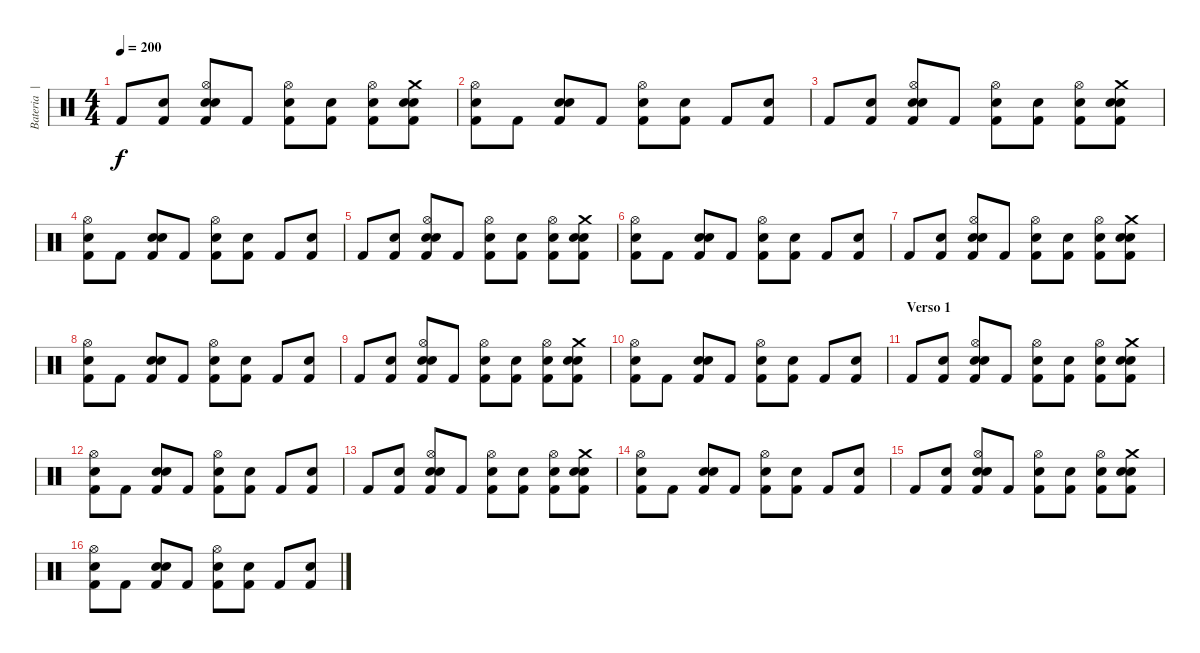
\track ("Bateria  | Nô" "Bateria  |") {instrument percussion}
\staff {score}
\articulation defaults
\ts (4 4)
\tempo 200
\clef neutral
\ks c "Kick (hit) 2".8{dy f}
("Electric Snare (hit)" "Kick (hit) 2").8 ("Hi-Hat (open)" "Electric Snare (hit)" "Snare (hit) 2" "Kick (hit) 2").8 "Kick (hit) 2".8 ("Hi-Hat (open)" "Electric Snare (hit)" "Kick (hit) 2").8 ("Electric Snare (hit)" "Kick (hit) 2").8 ("Hi-Hat (open)" "Electric Snare (hit)" "Kick (hit) 2").8 ("Crash medium (hit)" "Snare (hit) 2" "Electric Snare (hit)" "Kick (hit) 2").8 |
("Hi-Hat (open)" "Electric Snare (hit)" "Kick (hit) 2").8 "Kick (hit) 2".8 ("Snare (hit) 2" "Electric Snare (hit)" "Kick (hit) 2").8 "Kick (hit) 2".8 ("Hi-Hat (open)" "Electric Snare (hit)" "Kick (hit) 2").8 ("Electric Snare (hit)" "Kick (hit) 2").8 "Kick (hit) 2".8 ("Snare (hit) 2" "Kick (hit) 2").8 |
"Kick (hit) 2".8 ("Electric Snare (hit)" "Kick (hit) 2").8 ("Hi-Hat (open)" "Electric Snare (hit)" "Snare (hit) 2" "Kick (hit) 2").8 "Kick (hit) 2".8 ("Hi-Hat (open)" "Electric Snare (hit)" "Kick (hit) 2").8 ("Electric Snare (hit)" "Kick (hit) 2").8 ("Hi-Hat (open)" "Electric Snare (hit)" "Kick (hit) 2").8 ("Crash medium (hit)" "Snare (hit) 2" "Electric Snare (hit)" "Kick (hit) 2").8 |
("Hi-Hat (open)" "Electric Snare (hit)" "Kick (hit) 2").8 "Kick (hit) 2".8 ("Snare (hit) 2" "Electric Snare (hit)" "Kick (hit) 2").8 "Kick (hit) 2".8 ("Hi-Hat (open)" "Electric Snare (hit)" "Kick (hit) 2").8 ("Electric Snare (hit)" "Kick (hit) 2").8 "Kick (hit) 2".8 ("Snare (hit) 2" "Kick (hit) 2").8 |
"Kick (hit) 2".8 ("Electric Snare (hit)" "Kick (hit) 2").8 ("Hi-Hat (open)" "Electric Snare (hit)" "Snare (hit) 2" "Kick (hit) 2").8 "Kick (hit) 2".8 ("Hi-Hat (open)" "Electric Snare (hit)" "Kick (hit) 2").8 ("Electric Snare (hit)" "Kick (hit) 2").8 ("Hi-Hat (open)" "Electric Snare (hit)" "Kick (hit) 2").8 ("Crash medium (hit)" "Snare (hit) 2" "Electric Snare (hit)" "Kick (hit) 2").8 |
("Hi-Hat (open)" "Electric Snare (hit)" "Kick (hit) 2").8 "Kick (hit) 2".8 ("Snare (hit) 2" "Electric Snare (hit)" "Kick (hit) 2").8 "Kick (hit) 2".8 ("Hi-Hat (open)" "Electric Snare (hit)" "Kick (hit) 2").8 ("Electric Snare (hit)" "Kick (hit) 2").8 "Kick (hit) 2".8 ("Snare (hit) 2" "Kick (hit) 2").8 |
"Kick (hit) 2".8 ("Electric Snare (hit)" "Kick (hit) 2").8 ("Hi-Hat (open)" "Electric Snare (hit)" "Snare (hit) 2" "Kick (hit) 2").8 "Kick (hit) 2".8 ("Hi-Hat (open)" "Electric Snare (hit)" "Kick (hit) 2").8 ("Electric Snare (hit)" "Kick (hit) 2").8 ("Hi-Hat (open)" "Electric Snare (hit)" "Kick (hit) 2").8 ("Crash medium (hit)" "Snare (hit) 2" "Electric Snare (hit)" "Kick (hit) 2").8 |
("Hi-Hat (open)" "Electric Snare (hit)" "Kick (hit) 2").8 "Kick (hit) 2".8 ("Snare (hit) 2" "Electric Snare (hit)" "Kick (hit) 2").8 "Kick (hit) 2".8 ("Hi-Hat (open)" "Electric Snare (hit)" "Kick (hit) 2").8 ("Electric Snare (hit)" "Kick (hit) 2").8 "Kick (hit) 2".8 ("Snare (hit) 2" "Kick (hit) 2").8 |
"Kick (hit) 2".8 ("Electric Snare (hit)" "Kick (hit) 2").8 ("Hi-Hat (open)" "Electric Snare (hit)" "Snare (hit) 2" "Kick (hit) 2").8 "Kick (hit) 2".8 ("Hi-Hat (open)" "Electric Snare (hit)" "Kick (hit) 2").8 ("Electric Snare (hit)" "Kick (hit) 2").8 ("Hi-Hat (open)" "Electric Snare (hit)" "Kick (hit) 2").8 ("Crash medium (hit)" "Snare (hit) 2" "Electric Snare (hit)" "Kick (hit) 2").8 |
("Hi-Hat (open)" "Electric Snare (hit)" "Kick (hit) 2").8 "Kick (hit) 2".8 ("Snare (hit) 2" "Electric Snare (hit)" "Kick (hit) 2").8 "Kick (hit) 2".8 ("Hi-Hat (open)" "Electric Snare (hit)" "Kick (hit) 2").8 ("Electric Snare (hit)" "Kick (hit) 2").8 "Kick (hit) 2".8 ("Snare (hit) 2" "Kick (hit) 2").8 |
\section ("" "Verso 1")
"Kick (hit) 2".8 ("Electric Snare (hit)" "Kick (hit) 2").8 ("Hi-Hat (open)" "Electric Snare (hit)" "Snare (hit) 2" "Kick (hit) 2").8 "Kick (hit) 2".8 ("Hi-Hat (open)" "Electric Snare (hit)" "Kick (hit) 2").8 ("Electric Snare (hit)" "Kick (hit) 2").8 ("Hi-Hat (open)" "Electric Snare (hit)" "Kick (hit) 2").8 ("Crash medium (hit)" "Snare (hit) 2" "Electric Snare (hit)" "Kick (hit) 2").8 |
("Hi-Hat (open)" "Electric Snare (hit)" "Kick (hit) 2").8 "Kick (hit) 2".8 ("Snare (hit) 2" "Electric Snare (hit)" "Kick (hit) 2").8 "Kick (hit) 2".8 ("Hi-Hat (open)" "Electric Snare (hit)" "Kick (hit) 2").8 ("Electric Snare (hit)" "Kick (hit) 2").8 "Kick (hit) 2".8 ("Snare (hit) 2" "Kick (hit) 2").8 |
"Kick (hit) 2".8 ("Electric Snare (hit)" "Kick (hit) 2").8 ("Hi-Hat (open)" "Electric Snare (hit)" "Snare (hit) 2" "Kick (hit) 2").8 "Kick (hit) 2".8 ("Hi-Hat (open)" "Electric Snare (hit)" "Kick (hit) 2").8 ("Electric Snare (hit)" "Kick (hit) 2").8 ("Hi-Hat (open)" "Electric Snare (hit)" "Kick (hit) 2").8 ("Crash medium (hit)" "Snare (hit) 2" "Electric Snare (hit)" "Kick (hit) 2").8 |
("Hi-Hat (open)" "Electric Snare (hit)" "Kick (hit) 2").8 "Kick (hit) 2".8 ("Snare (hit) 2" "Electric Snare (hit)" "Kick (hit) 2").8 "Kick (hit) 2".8 ("Hi-Hat (open)" "Electric Snare (hit)" "Kick (hit) 2").8 ("Electric Snare (hit)" "Kick (hit) 2").8 "Kick (hit) 2".8 ("Snare (hit) 2" "Kick (hit) 2").8 |
"Kick (hit) 2".8 ("Electric Snare (hit)" "Kick (hit) 2").8 ("Hi-Hat (open)" "Electric Snare (hit)" "Snare (hit) 2" "Kick (hit) 2").8 "Kick (hit) 2".8 ("Hi-Hat (open)" "Electric Snare (hit)" "Kick (hit) 2").8 ("Electric Snare (hit)" "Kick (hit) 2").8 ("Hi-Hat (open)" "Electric Snare (hit)" "Kick (hit) 2").8 ("Crash medium (hit)" "Snare (hit) 2" "Electric Snare (hit)" "Kick (hit) 2").8 |
("Hi-Hat (open)" "Electric Snare (hit)" "Kick (hit) 2").8 "Kick (hit) 2".8 ("Snare (hit) 2" "Electric Snare (hit)" "Kick (hit) 2").8 "Kick (hit) 2".8 ("Hi-Hat (open)" "Electric Snare (hit)" "Kick (hit) 2").8 ("Electric Snare (hit)" "Kick (hit) 2").8 "Kick (hit) 2".8 ("Snare (hit) 2" "Kick (hit) 2").8
